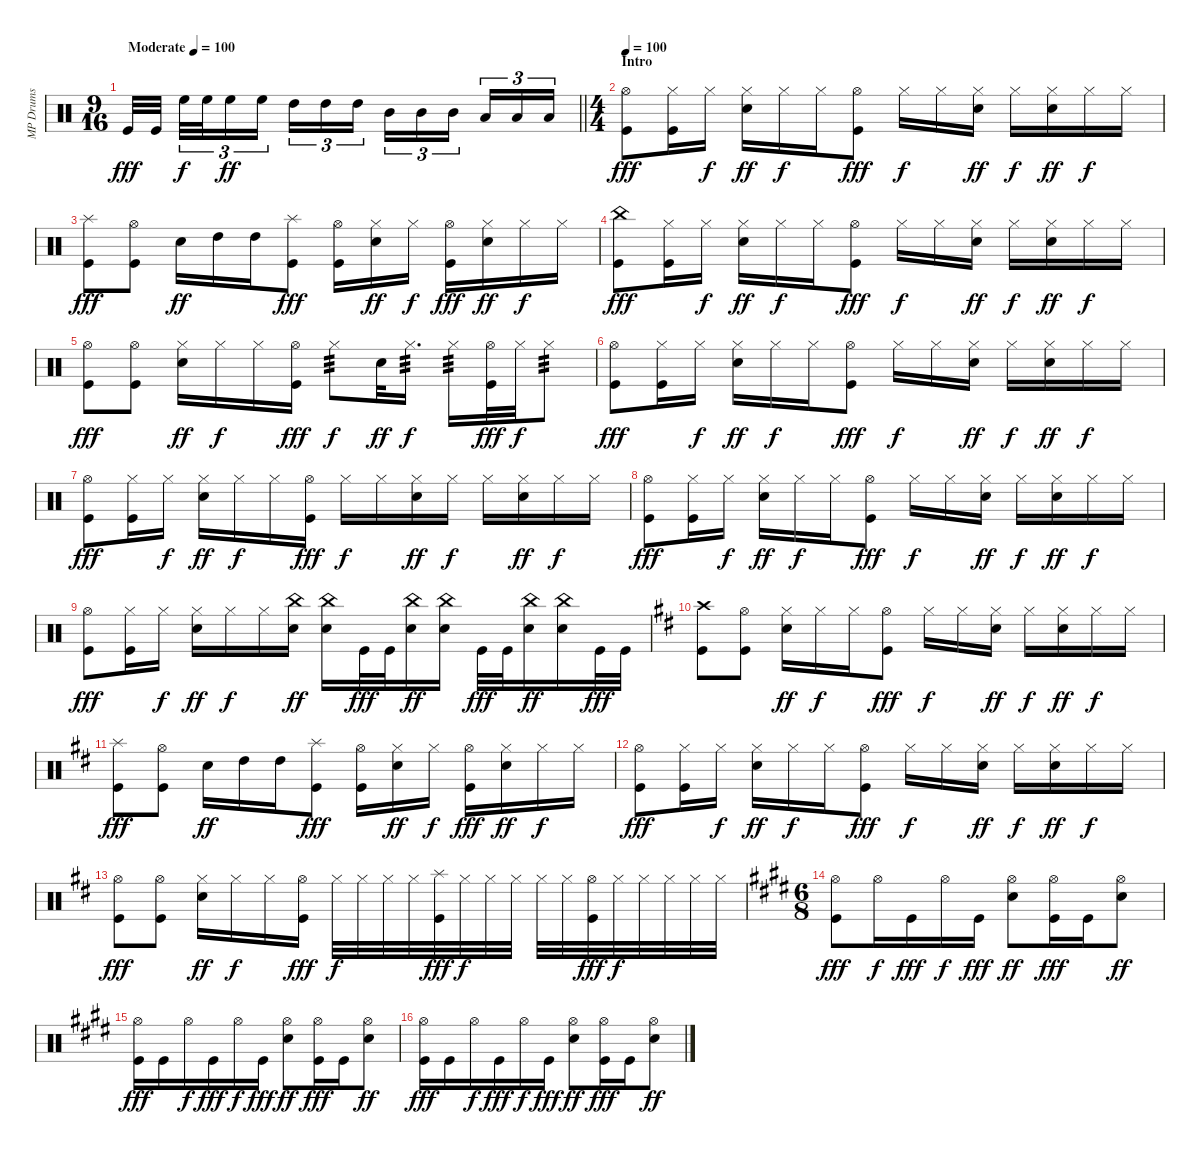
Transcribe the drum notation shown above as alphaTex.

\track ("MP Drums" "MP Drums") {instrument percussion}
\staff {score}
\articulation defaults
\ts (9 16)
\tempo (100 "Moderate")
\tempo 105
\tempo (100 "Moderate")
\clef neutral
\barLineRight lightlight
\ks c "Kick (hit)".32{dy fff} "Kick (hit)".32{beam splitsecondary} "High Floor Tom (hit)".32{tu (3 2) dy f} "High Floor Tom (hit)".32{tu (3 2)} "High Floor Tom (hit)".16{tu (3 2) dy ff} "High Floor Tom (hit)".16{tu (3 2)} "High Tom (hit)".16{tu (3 2)} "High Tom (hit)".16{tu (3 2)} "High Tom (hit)".16{tu (3 2) beam splitsecondary} "Mid Tom (hit)".16{tu (3 2)} "Mid Tom (hit)".16{tu (3 2)} "Mid Tom (hit)".16{tu (3 2) beam splitsecondary} "Low Tom (hit)".16{tu (3 2)} "Low Tom (hit)".16{tu (3 2)} "Low Tom (hit)".16{tu (3 2)}
|
\ts (4 4)
\section ("" "Intro")
\tempo 100
("Hi-Hat (open)" "Kick (hit)").8{dy fff} ("Hi-Hat (closed)" "Kick (hit)").16 "Hi-Hat (closed)".16{dy f} ("Hi-Hat (closed)" "Snare (hit) 2").16{dy ff} "Hi-Hat (closed)".16{dy f} "Hi-Hat (closed)".16 ("Hi-Hat (open)" "Kick (hit)").8{dy fff} "Hi-Hat (closed)".16{dy f} "Hi-Hat (closed)".16 ("Hi-Hat (closed)" "Snare (hit) 2").16{dy ff} "Hi-Hat (closed)".16{dy f} ("Hi-Hat (closed)" "Snare (hit) 2").16{dy ff} "Hi-Hat (closed)".16{dy f} "Hi-Hat (closed)".16 |
("Splash (hit)" "Kick (hit)").8{dy fff} ("Hi-Hat (open)" "Kick (hit)").8 "Snare (hit) 2".16{dy ff} "High Tom (hit)".16 "High Tom (hit)".16 ("Splash (hit)" "Kick (hit)").8{dy fff} ("Hi-Hat (open)" "Kick (hit)").16 ("Hi-Hat (closed)" "Snare (hit) 2").16{dy ff} "Hi-Hat (closed)".16{dy f} ("Hi-Hat (open)" "Kick (hit)").16{dy fff} ("Hi-Hat (closed)" "Snare (hit) 2").16{dy ff} "Hi-Hat (closed)".16{dy f} "Hi-Hat (closed)".16 |
("China (hit)" "Kick (hit)").8{dy fff} ("Hi-Hat (closed)" "Kick (hit)").16 "Hi-Hat (closed)".16{dy f} ("Hi-Hat (closed)" "Snare (hit) 2").16{dy ff} "Hi-Hat (closed)".16{dy f} "Hi-Hat (closed)".16 ("Hi-Hat (open)" "Kick (hit)").8{dy fff} "Hi-Hat (closed)".16{dy f} "Hi-Hat (closed)".16 ("Hi-Hat (closed)" "Snare (hit) 2").16{dy ff} "Hi-Hat (closed)".16{dy f} ("Hi-Hat (closed)" "Snare (hit) 2").16{dy ff} "Hi-Hat (closed)".16{dy f} "Hi-Hat (closed)".16 |
("Hi-Hat (open)" "Kick (hit)").8{dy fff} ("Hi-Hat (open)" "Kick (hit)").8 ("Hi-Hat (closed)" "Snare (hit) 2").16{dy ff} "Hi-Hat (closed)".16{dy f} "Hi-Hat (closed)".16 ("Hi-Hat (open)" "Kick (hit)").16{dy fff} "Hi-Hat (closed)".8{tp 3 dy f} "Snare (hit) 2".32{dy ff} "Hi-Hat (closed)".16{d tp 3 dy f} "Hi-Hat (closed)".16{tp 3} ("Hi-Hat (open)" "Kick (hit)").32{dy fff} "Hi-Hat (closed)".32{dy f} "Hi-Hat (closed)".8{tp 3} |
("Hi-Hat (open)" "Kick (hit)").8{dy fff} ("Hi-Hat (closed)" "Kick (hit)").16 "Hi-Hat (closed)".16{dy f} ("Hi-Hat (closed)" "Snare (hit) 2").16{dy ff} "Hi-Hat (closed)".16{dy f} "Hi-Hat (closed)".16 ("Hi-Hat (open)" "Kick (hit)").8{dy fff} "Hi-Hat (closed)".16{dy f} "Hi-Hat (closed)".16 ("Hi-Hat (closed)" "Snare (hit) 2").16{dy ff} "Hi-Hat (closed)".16{dy f} ("Hi-Hat (closed)" "Snare (hit) 2").16{dy ff} "Hi-Hat (closed)".16{dy f} "Hi-Hat (closed)".16 |
("Hi-Hat (open)" "Kick (hit)").8{dy fff} ("Hi-Hat (closed)" "Kick (hit)").16 "Hi-Hat (closed)".16{dy f} ("Hi-Hat (closed)" "Snare (hit) 2").16{dy ff} "Hi-Hat (closed)".16{dy f} "Hi-Hat (closed)".16 ("Hi-Hat (open)" "Kick (hit)").16{dy fff} "Hi-Hat (closed)".16{dy f} "Hi-Hat (closed)".16 ("Hi-Hat (closed)" "Snare (hit) 2").16{dy ff} "Hi-Hat (closed)".16{dy f} "Hi-Hat (closed)".16 ("Hi-Hat (closed)" "Snare (hit) 2").16{dy ff} "Hi-Hat (closed)".16{dy f} "Hi-Hat (closed)".16 |
("Hi-Hat (open)" "Kick (hit)").8{dy fff} ("Hi-Hat (closed)" "Kick (hit)").16 "Hi-Hat (closed)".16{dy f} ("Hi-Hat (closed)" "Snare (hit) 2").16{dy ff} "Hi-Hat (closed)".16{dy f} "Hi-Hat (closed)".16 ("Hi-Hat (open)" "Kick (hit)").8{dy fff} "Hi-Hat (closed)".16{dy f} "Hi-Hat (closed)".16 ("Hi-Hat (closed)" "Snare (hit) 2").16{dy ff} "Hi-Hat (closed)".16{dy f} ("Hi-Hat (closed)" "Snare (hit) 2").16{dy ff} "Hi-Hat (closed)".16{dy f} "Hi-Hat (closed)".16 |
("Hi-Hat (open)" "Kick (hit)").8{dy fff} ("Hi-Hat (closed)" "Kick (hit)").16 "Hi-Hat (closed)".16{dy f} ("Hi-Hat (closed)" "Snare (hit) 2").16{dy ff} "Hi-Hat (closed)".16{dy f} "Hi-Hat (closed)".16 ("China (hit)" "Snare (hit) 2").16{dy ff} ("China (hit)" "Snare (hit) 2").16 "Kick (hit)".32{dy fff} "Kick (hit)".32 ("China (hit)" "Snare (hit) 2").16{dy ff} ("China (hit)" "Snare (hit) 2").16 "Kick (hit)".32{dy fff} "Kick (hit)".32 ("China (hit)" "Snare (hit) 2").16{dy ff} ("China (hit)" "Snare (hit) 2").16 "Kick (hit)".32{dy fff} "Kick (hit)".32 |
\ks d
("Crash high (hit)" "Kick (hit)").8 ("Hi-Hat (open)" "Kick (hit)").8 ("Hi-Hat (closed)" "Snare (hit) 2").16{dy ff} "Hi-Hat (closed)".16{dy f} "Hi-Hat (closed)".16 ("Hi-Hat (open)" "Kick (hit)").8{dy fff} "Hi-Hat (closed)".16{dy f} "Hi-Hat (closed)".16 ("Hi-Hat (closed)" "Snare (hit) 2").16{dy ff} "Hi-Hat (closed)".16{dy f} ("Hi-Hat (closed)" "Snare (hit) 2").16{dy ff} "Hi-Hat (closed)".16{dy f} "Hi-Hat (closed)".16 |
("Splash (hit)" "Kick (hit)").8{dy fff} ("Hi-Hat (open)" "Kick (hit)").8 "Snare (hit) 2".16{dy ff} "High Tom (hit)".16 "High Tom (hit)".16 ("Splash (hit)" "Kick (hit)").8{dy fff} ("Hi-Hat (open)" "Kick (hit)").16 ("Hi-Hat (closed)" "Snare (hit) 2").16{dy ff} "Hi-Hat (closed)".16{dy f} ("Hi-Hat (open)" "Kick (hit)").16{dy fff} ("Hi-Hat (closed)" "Snare (hit) 2").16{dy ff} "Hi-Hat (closed)".16{dy f} "Hi-Hat (closed)".16 |
("Hi-Hat (open)" "Kick (hit)").8{dy fff} ("Hi-Hat (closed)" "Kick (hit)").16 "Hi-Hat (closed)".16{dy f} ("Hi-Hat (closed)" "Snare (hit) 2").16{dy ff} "Hi-Hat (closed)".16{dy f} "Hi-Hat (closed)".16 ("Hi-Hat (open)" "Kick (hit)").8{dy fff} "Hi-Hat (closed)".16{dy f} "Hi-Hat (closed)".16 ("Hi-Hat (closed)" "Snare (hit) 2").16{dy ff} "Hi-Hat (closed)".16{dy f} ("Hi-Hat (closed)" "Snare (hit) 2").16{dy ff} "Hi-Hat (closed)".16{dy f} "Hi-Hat (closed)".16 |
("Hi-Hat (open)" "Kick (hit)").8{dy fff} ("Hi-Hat (open)" "Kick (hit)").8 ("Hi-Hat (closed)" "Snare (hit) 2").16{dy ff} "Hi-Hat (closed)".16{dy f} "Hi-Hat (closed)".16 ("Hi-Hat (open)" "Kick (hit)").16{dy fff} "Hi-Hat (closed)".32{dy f} "Hi-Hat (closed)".32 "Hi-Hat (closed)".32 "Hi-Hat (closed)".32 ("Splash (hit)" "Kick (hit)").32{dy fff} "Hi-Hat (closed)".32{dy f} "Hi-Hat (closed)".32 "Hi-Hat (closed)".32 "Hi-Hat (closed)".32 "Hi-Hat (closed)".32 ("Hi-Hat (open)" "Kick (hit)").32{dy fff} "Hi-Hat (closed)".32{dy f} "Hi-Hat (closed)".32 "Hi-Hat (closed)".32 "Hi-Hat (closed)".32 "Hi-Hat (closed)".32 |
\ts (6 8)
\ks e
("Hi-Hat (open)" "Kick (hit)").8{dy fff} "Hi-Hat (open)".16{dy f} "Kick (hit)".16{dy fff} "Hi-Hat (open)".16{dy f} "Kick (hit)".16{dy fff} ("Hi-Hat (open)" "Snare (hit) 2").8{dy ff} ("Hi-Hat (open)" "Kick (hit)").16{dy fff} "Kick (hit)".16 ("Hi-Hat (open)" "Snare (hit) 2").8{dy ff} |
("Hi-Hat (open)" "Kick (hit)").16{dy fff} "Kick (hit)".16 "Hi-Hat (open)".16{dy f} "Kick (hit)".16{dy fff} "Hi-Hat (open)".16{dy f} "Kick (hit)".16{dy fff} ("Hi-Hat (open)" "Snare (hit) 2").8{dy ff} ("Hi-Hat (open)" "Kick (hit)").16{dy fff} "Kick (hit)".16 ("Hi-Hat (open)" "Snare (hit) 2").8{dy ff} |
("Hi-Hat (open)" "Kick (hit)").16{dy fff} "Kick (hit)".16 "Hi-Hat (open)".16{dy f} "Kick (hit)".16{dy fff} "Hi-Hat (open)".16{dy f} "Kick (hit)".16{dy fff} ("Hi-Hat (open)" "Snare (hit) 2").8{dy ff} ("Hi-Hat (open)" "Kick (hit)").16{dy fff} "Kick (hit)".16 ("Hi-Hat (open)" "Snare (hit) 2").8{dy ff}
